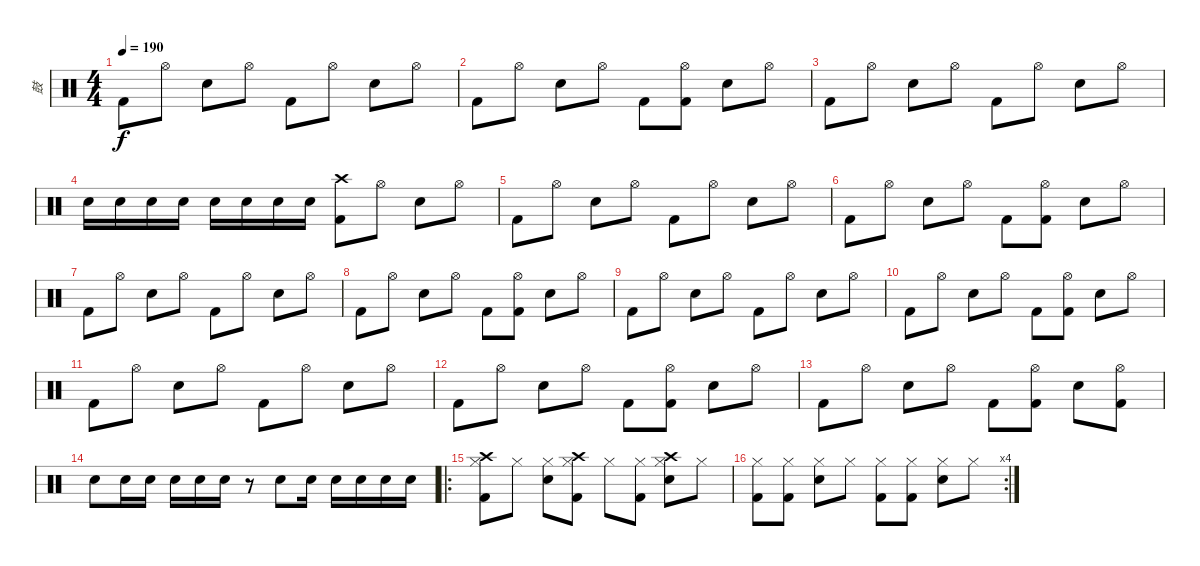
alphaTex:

\track ("鼓" "鼓") {instrument percussion}
\staff {score}
\articulation defaults
\ts (4 4)
\tempo 190
\clef neutral
\ks c "Kick (hit) 2".8{dy f} "Hi-Hat (open)".8 "Snare (hit) 2".8 "Hi-Hat (open)".8 "Kick (hit) 2".8 "Hi-Hat (open)".8 "Snare (hit) 2".8 "Hi-Hat (open)".8
|
"Kick (hit) 2".8 "Hi-Hat (open)".8 "Snare (hit) 2".8 "Hi-Hat (open)".8 "Kick (hit) 2".8 ("Hi-Hat (open)" "Kick (hit) 2").8 "Snare (hit) 2".8 "Hi-Hat (open)".8 |
"Kick (hit) 2".8 "Hi-Hat (open)".8 "Snare (hit) 2".8 "Hi-Hat (open)".8 "Kick (hit) 2".8 "Hi-Hat (open)".8 "Snare (hit) 2".8 "Hi-Hat (open)".8 |
"Snare (hit) 2".16 "Snare (hit) 2".16 "Snare (hit) 2".16 "Snare (hit) 2".16 "Snare (hit) 2".16 "Snare (hit) 2".16 "Snare (hit) 2".16 "Snare (hit) 2".16 ("Crash high (hit)" "Kick (hit) 2").8 "Hi-Hat (open)".8 "Snare (hit) 2".8 "Hi-Hat (open)".8 |
"Kick (hit) 2".8 "Hi-Hat (open)".8 "Snare (hit) 2".8 "Hi-Hat (open)".8 "Kick (hit) 2".8 "Hi-Hat (open)".8 "Snare (hit) 2".8 "Hi-Hat (open)".8 |
"Kick (hit) 2".8 "Hi-Hat (open)".8 "Snare (hit) 2".8 "Hi-Hat (open)".8 "Kick (hit) 2".8 ("Hi-Hat (open)" "Kick (hit) 2").8 "Snare (hit) 2".8 "Hi-Hat (open)".8 |
"Kick (hit) 2".8 "Hi-Hat (open)".8 "Snare (hit) 2".8 "Hi-Hat (open)".8 "Kick (hit) 2".8 "Hi-Hat (open)".8 "Snare (hit) 2".8 "Hi-Hat (open)".8 |
"Kick (hit) 2".8 "Hi-Hat (open)".8 "Snare (hit) 2".8 "Hi-Hat (open)".8 "Kick (hit) 2".8 ("Hi-Hat (open)" "Kick (hit) 2").8 "Snare (hit) 2".8 "Hi-Hat (open)".8 |
"Kick (hit) 2".8 "Hi-Hat (open)".8 "Snare (hit) 2".8 "Hi-Hat (open)".8 "Kick (hit) 2".8 "Hi-Hat (open)".8 "Snare (hit) 2".8 "Hi-Hat (open)".8 |
"Kick (hit) 2".8 "Hi-Hat (open)".8 "Snare (hit) 2".8 "Hi-Hat (open)".8 "Kick (hit) 2".8 ("Hi-Hat (open)" "Kick (hit) 2").8 "Snare (hit) 2".8 "Hi-Hat (open)".8 |
"Kick (hit) 2".8 "Hi-Hat (open)".8 "Snare (hit) 2".8 "Hi-Hat (open)".8 "Kick (hit) 2".8 "Hi-Hat (open)".8 "Snare (hit) 2".8 "Hi-Hat (open)".8 |
"Kick (hit) 2".8 "Hi-Hat (open)".8 "Snare (hit) 2".8 "Hi-Hat (open)".8 "Kick (hit) 2".8 ("Hi-Hat (open)" "Kick (hit) 2").8 "Snare (hit) 2".8 "Hi-Hat (open)".8 |
"Kick (hit) 2".8 "Hi-Hat (open)".8 "Snare (hit) 2".8 "Hi-Hat (open)".8 "Kick (hit) 2".8 ("Hi-Hat (open)" "Kick (hit) 2").8 "Snare (hit) 2".8 ("Hi-Hat (open)" "Kick (hit) 2").8 |
"Snare (hit) 2".8 "Snare (hit) 2".16 "Snare (hit) 2".16 "Snare (hit) 2".16 "Snare (hit) 2".16 "Snare (hit) 2".16 r.8 "Snare (hit) 2".8 "Snare (hit) 2".16 "Snare (hit) 2".16 "Snare (hit) 2".16 "Snare (hit) 2".16 "Snare (hit) 2".16 |
\ro
("Crash high (hit)" "Hi-Hat (closed)" "Kick (hit) 2").8 "Hi-Hat (closed)".8 ("Hi-Hat (closed)" "Snare (hit) 2").8 ("Crash high (hit)" "Hi-Hat (closed)" "Kick (hit) 2").8 "Hi-Hat (closed)".8 ("Hi-Hat (closed)" "Kick (hit) 2").8 ("Crash high (hit)" "Hi-Hat (closed)" "Snare (hit) 2").8 "Hi-Hat (closed)".8 |
\rc 4
("Hi-Hat (closed)" "Kick (hit) 2").8 ("Hi-Hat (closed)" "Kick (hit) 2").8 ("Hi-Hat (closed)" "Snare (hit) 2").8 "Hi-Hat (closed)".8 ("Hi-Hat (closed)" "Kick (hit) 2").8 ("Hi-Hat (closed)" "Kick (hit) 2").8 ("Hi-Hat (closed)" "Snare (hit) 2").8 "Hi-Hat (closed)".8
